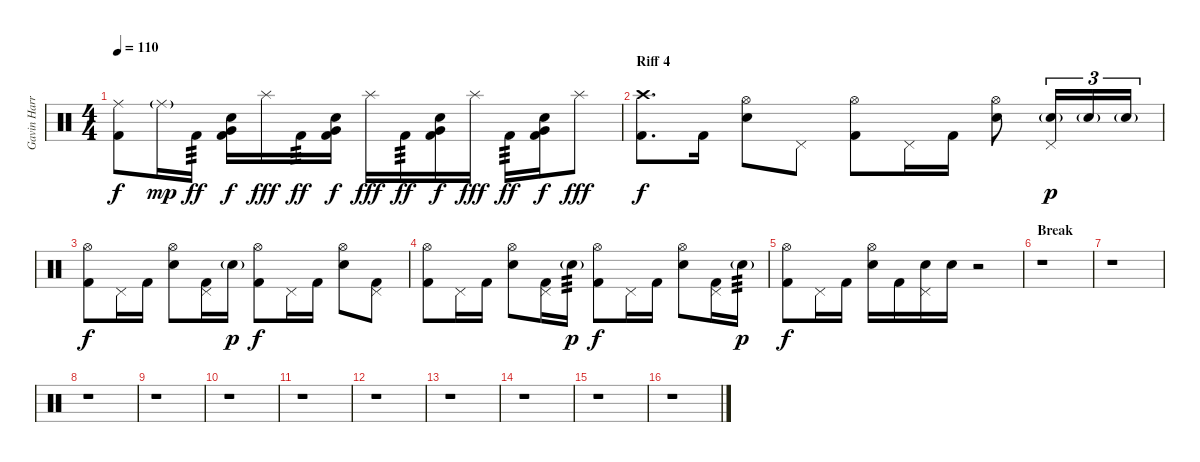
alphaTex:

\track ("Gavin Harrison - Drums" "Gavin Harr") {instrument percussion}
\staff {score}
\articulation defaults
\ts (4 4)
\tempo 110
\clef neutral
\ks c
("Ride (middle)" "Kick (hit) 2").8{dy f} "Ride (middle)"{g}.16{dy mp} "Kick (hit) 2".16{tp 3 dy ff} ("Electric Snare (hit)" "Very Low Tom (hit)" "Kick (hit) 2").16{bd 480 dy f} "Splash (hit)".16{dy fff} "Kick (hit) 2".16{tp 3 dy ff} ("Electric Snare (hit)" "Very Low Tom (hit)" "Kick (hit) 2").16{bd 480 dy f} "Splash (hit)".16{dy fff} "Kick (hit) 2".16{tp 3 dy ff} ("Electric Snare (hit)" "Very Low Tom (hit)" "Kick (hit) 2").16{bd 480 dy f} "Splash (hit)".16{dy fff} "Kick (hit) 2".16{tp 3 dy ff} ("Electric Snare (hit)" "Very Low Tom (hit)" "Kick (hit) 2").16{bd 480 dy f} "Splash (hit)".8{dy fff} |
\section ("" "Riff 4")
("Crash high (hit)" "Kick (hit) 2").8{d dy f} "Kick (hit) 2".16 ("Hi-Hat (open)" "Electric Snare (hit)").8 "Pedal Hi-Hat (hit)".8 ("Hi-Hat (open)" "Kick (hit) 2").8 "Pedal Hi-Hat (hit)".16 "Kick (hit) 2".16 ("Hi-Hat (open)" "Electric Snare (hit)").8 ("Pedal Hi-Hat (hit)" "Electric Snare (hit)"{g}).16{tu (3 2) dy p} "Electric Snare (hit)"{g}.16{tu (3 2)} "Electric Snare (hit)"{g}.16{tu (3 2)} |
("Hi-Hat (open)" "Kick (hit) 2").8{dy f} "Pedal Hi-Hat (hit)".16 "Kick (hit) 2".16 ("Hi-Hat (open)" "Electric Snare (hit)").8 ("Pedal Hi-Hat (hit)" "Kick (hit) 2").16 "Electric Snare (hit)"{g}.16{dy p} ("Hi-Hat (open)" "Kick (hit) 2").8{dy f} "Pedal Hi-Hat (hit)".16 "Kick (hit) 2".16 ("Hi-Hat (open)" "Electric Snare (hit)").8 ("Pedal Hi-Hat (hit)" "Kick (hit) 2").8 |
("Hi-Hat (open)" "Kick (hit) 2").8 "Pedal Hi-Hat (hit)".16 "Kick (hit) 2".16 ("Hi-Hat (open)" "Electric Snare (hit)").8 ("Pedal Hi-Hat (hit)" "Kick (hit) 2").16 "Electric Snare (hit)"{g}.16{tp 3 dy p} ("Hi-Hat (open)" "Kick (hit) 2").8{dy f} "Pedal Hi-Hat (hit)".16 "Kick (hit) 2".16 ("Hi-Hat (open)" "Electric Snare (hit)").8 ("Pedal Hi-Hat (hit)" "Kick (hit) 2").16 "Electric Snare (hit)"{g}.16{tp 3 dy p} |
("Hi-Hat (open)" "Kick (hit) 2").8{dy f} "Pedal Hi-Hat (hit)".16 "Kick (hit) 2".16 ("Hi-Hat (open)" "Electric Snare (hit)").16 "Kick (hit) 2".16 ("Pedal Hi-Hat (hit)" "Electric Snare (hit)").16 "Electric Snare (hit)".16 r.2 |
\section ("" "Break")
r.1 |
r.1 |
r.1 |
r.1 |
r.1 |
r.1 |
r.1 |
r.1 |
r.1 |
r.1 |
r.1
